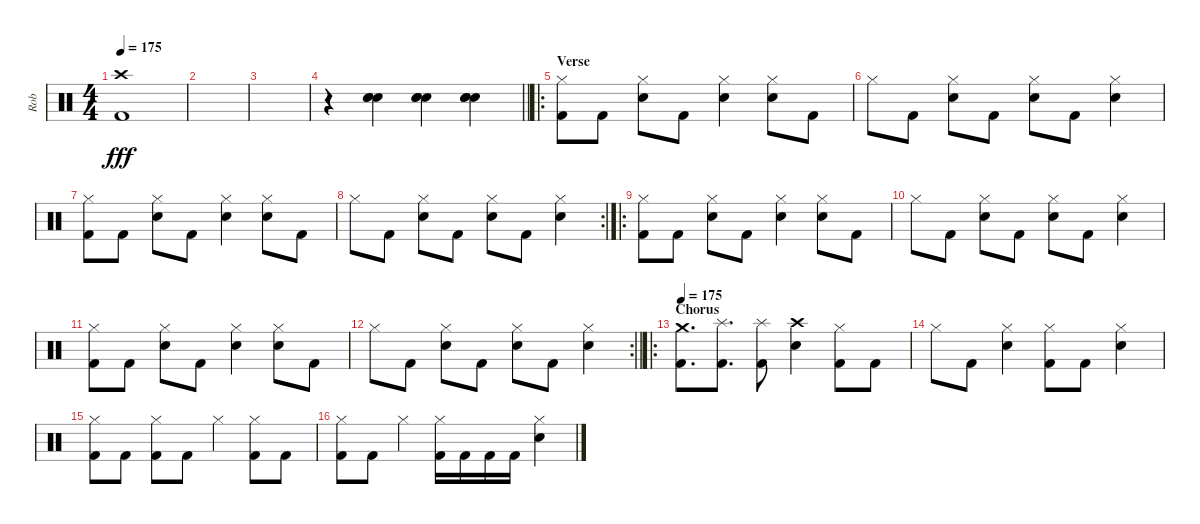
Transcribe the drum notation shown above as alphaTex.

\track ("Rob" "Rob") {instrument percussion}
\staff {score}
\articulation defaults
\ts (4 4)
\tempo 175
\clef neutral
\ks c
("Crash high (hit)" "Kick (hit) 2").1{dy fff} |
|
|
\barLineRight lightlight
r.4 ("Hand Clap (hit)" "Hand Clap (hit)" "Hand Clap (hit)").4 ("Hand Clap (hit)" "Hand Clap (hit)" "Hand Clap (hit)").4 ("Hand Clap (hit)" "Hand Clap (hit)" "Hand Clap (hit)").4 |
\ro
\section ("" "Verse")
("Hi-Hat (closed)" "Kick (hit) 2").8{volume 16} "Kick (hit) 2".8 ("Hi-Hat (closed)" "Electric Snare (hit)").8 "Kick (hit) 2".8 ("Hi-Hat (closed)" "Electric Snare (hit)").4 ("Hi-Hat (closed)" "Electric Snare (hit)").8 "Kick (hit) 2".8 |
"Hi-Hat (closed)".8 "Kick (hit) 2".8 ("Hi-Hat (closed)" "Electric Snare (hit)").8 "Kick (hit) 2".8 ("Hi-Hat (closed)" "Electric Snare (hit)").8 "Kick (hit) 2".8 ("Hi-Hat (closed)" "Electric Snare (hit)").4 |
("Hi-Hat (closed)" "Kick (hit) 2").8 "Kick (hit) 2".8 ("Hi-Hat (closed)" "Electric Snare (hit)").8 "Kick (hit) 2".8 ("Hi-Hat (closed)" "Electric Snare (hit)").4 ("Hi-Hat (closed)" "Electric Snare (hit)").8 "Kick (hit) 2".8 |
\rc 2 "Hi-Hat (closed)".8 "Kick (hit) 2".8
("Hi-Hat (closed)" "Electric Snare (hit)").8 "Kick (hit) 2".8 ("Hi-Hat (closed)" "Electric Snare (hit)").8 "Kick (hit) 2".8 ("Hi-Hat (closed)" "Electric Snare (hit)").4 |
\ro
("Hi-Hat (closed)" "Kick (hit) 2").8{volume 16} "Kick (hit) 2".8 ("Hi-Hat (closed)" "Electric Snare (hit)").8 "Kick (hit) 2".8 ("Hi-Hat (closed)" "Electric Snare (hit)").4 ("Hi-Hat (closed)" "Electric Snare (hit)").8 "Kick (hit) 2".8 |
"Hi-Hat (closed)".8 "Kick (hit) 2".8 ("Hi-Hat (closed)" "Electric Snare (hit)").8 "Kick (hit) 2".8 ("Hi-Hat (closed)" "Electric Snare (hit)").8 "Kick (hit) 2".8 ("Hi-Hat (closed)" "Electric Snare (hit)").4 |
("Hi-Hat (closed)" "Kick (hit) 2").8 "Kick (hit) 2".8 ("Hi-Hat (closed)" "Electric Snare (hit)").8 "Kick (hit) 2".8 ("Hi-Hat (closed)" "Electric Snare (hit)").4 ("Hi-Hat (closed)" "Electric Snare (hit)").8 "Kick (hit) 2".8 |
\rc 2
\barLineRight lightlight "Hi-Hat (closed)".8 "Kick (hit) 2".8
("Hi-Hat (closed)" "Electric Snare (hit)").8 "Kick (hit) 2".8 ("Hi-Hat (closed)" "Electric Snare (hit)").8 "Kick (hit) 2".8 ("Hi-Hat (closed)" "Electric Snare (hit)").4 |
\ro
\section ("" "Chorus")
\tempo 175
("Crash medium (hit)" "Kick (hit) 2").8{d} ("Splash (hit)" "Kick (hit) 2").8{d} ("Splash (hit)" "Kick (hit) 2").8 ("Crash high (hit)" "Electric Snare (hit)").4 ("Hi-Hat (closed)" "Kick (hit) 2").8 "Kick (hit) 2".8 |
"Hi-Hat (closed)".8 "Kick (hit) 2".8 ("Hi-Hat (closed)" "Electric Snare (hit)").4 ("Hi-Hat (closed)" "Kick (hit) 2").8 "Kick (hit) 2".8 ("Hi-Hat (closed)" "Electric Snare (hit)").4 |
("Hi-Hat (closed)" "Kick (hit) 2").8 "Kick (hit) 2".8 ("Hi-Hat (closed)" "Kick (hit) 2").8 "Kick (hit) 2".8 "Hi-Hat (closed)".4 ("Hi-Hat (closed)" "Kick (hit) 2").8 "Kick (hit) 2".8 |
("Hi-Hat (closed)" "Kick (hit) 2").8 "Kick (hit) 2".8 "Hi-Hat (closed)".4 ("Hi-Hat (closed)" "Kick (hit) 2").16 "Kick (hit) 2".16 "Kick (hit) 2".16 "Kick (hit) 2".16 ("Hi-Hat (closed)" "Electric Snare (hit)").4
